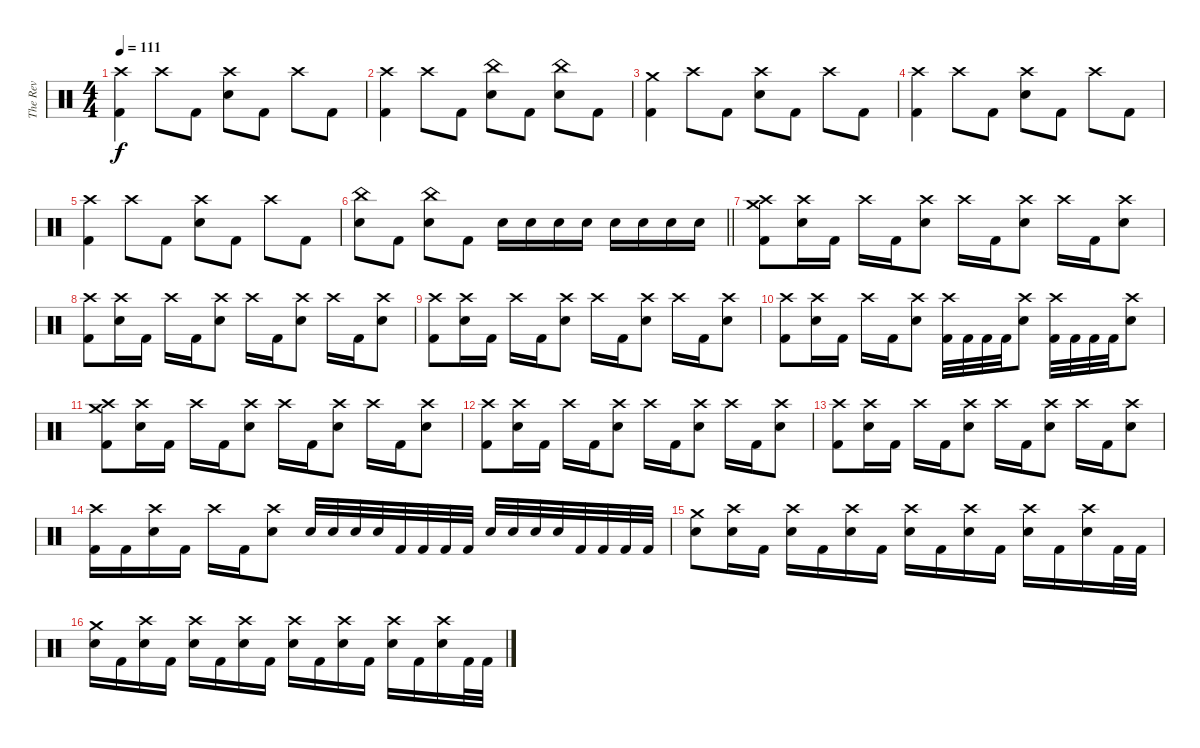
\track ("The Rev" "The Rev") {instrument percussion}
\staff {score}
\articulation defaults
\ts (4 4)
\tempo 111
\clef neutral
\ks c
("Crash high (hit)" "Kick (hit) 2").4{dy f} "Crash high (hit)".8 "Kick (hit) 2".8 ("Crash high (hit)" "Snare (hit) 2").8 "Kick (hit) 2".8 "Crash high (hit)".8 "Kick (hit) 2".8 |
("Crash high (hit)" "Kick (hit) 2").4 "Crash high (hit)".8 "Kick (hit) 2".8 ("China (hit)" "Snare (hit) 2").8 "Kick (hit) 2".8 ("China (hit)" "Snare (hit) 2").8 "Kick (hit) 2".8 |
("Crash medium (hit)" "Kick (hit) 2").4 "Crash high (hit)".8 "Kick (hit) 2".8 ("Crash high (hit)" "Snare (hit) 2").8 "Kick (hit) 2".8 "Crash high (hit)".8 "Kick (hit) 2".8 |
("Crash high (hit)" "Kick (hit) 2").4 "Crash high (hit)".8 "Kick (hit) 2".8 ("Crash high (hit)" "Snare (hit) 2").8 "Kick (hit) 2".8 "Crash high (hit)".8 "Kick (hit) 2".8 |
("Crash high (hit)" "Kick (hit) 2").4 "Crash high (hit)".8 "Kick (hit) 2".8 ("Crash high (hit)" "Snare (hit) 2").8 "Kick (hit) 2".8 "Crash high (hit)".8 "Kick (hit) 2".8 |
\barLineRight lightlight
("China (hit)" "Snare (hit) 2").8 "Kick (hit) 2".8 ("China (hit)" "Snare (hit) 2").8 "Kick (hit) 2".8 "Snare (hit) 2".16 "Snare (hit) 2".16 "Snare (hit) 2".16 "Snare (hit) 2".16 "Snare (hit) 2".16 "Snare (hit) 2".16 "Snare (hit) 2".16 "Snare (hit) 2".16 |
("Crash high (hit)" "Crash medium (hit)" "Kick (hit) 2").8 ("Crash high (hit)" "Snare (hit) 2").16 "Kick (hit) 2".16 "Crash high (hit)".16 "Kick (hit) 2".16 ("Crash high (hit)" "Snare (hit) 2").8 "Crash high (hit)".16 "Kick (hit) 2".16 ("Crash high (hit)" "Snare (hit) 2").8 "Crash high (hit)".16 "Kick (hit) 2".16 ("Crash high (hit)" "Snare (hit) 2").8 |
("Crash high (hit)" "Kick (hit) 2").8 ("Crash high (hit)" "Snare (hit) 2").16 "Kick (hit) 2".16 "Crash high (hit)".16 "Kick (hit) 2".16 ("Crash high (hit)" "Snare (hit) 2").8 "Crash high (hit)".16 "Kick (hit) 2".16 ("Crash high (hit)" "Snare (hit) 2").8 "Crash high (hit)".16 "Kick (hit) 2".16 ("Crash high (hit)" "Snare (hit) 2").8 |
("Crash high (hit)" "Kick (hit) 2").8 ("Crash high (hit)" "Snare (hit) 2").16 "Kick (hit) 2".16 "Crash high (hit)".16 "Kick (hit) 2".16 ("Crash high (hit)" "Snare (hit) 2").8 "Crash high (hit)".16 "Kick (hit) 2".16 ("Crash high (hit)" "Snare (hit) 2").8 "Crash high (hit)".16 "Kick (hit) 2".16 ("Crash high (hit)" "Snare (hit) 2").8 |
("Crash high (hit)" "Kick (hit) 2").8 ("Crash high (hit)" "Snare (hit) 2").16 "Kick (hit) 2".16 "Crash high (hit)".16 "Kick (hit) 2".16 ("Crash high (hit)" "Snare (hit) 2").8 ("Crash high (hit)" "Kick (hit) 2").32 "Kick (hit) 2".32 "Kick (hit) 2".32 "Kick (hit) 2".32 ("Crash high (hit)" "Snare (hit) 2").8 ("Crash high (hit)" "Kick (hit) 2").32 "Kick (hit) 2".32 "Kick (hit) 2".32 "Kick (hit) 2".32 ("Crash high (hit)" "Snare (hit) 2").8 |
("Crash high (hit)" "Crash medium (hit)" "Kick (hit) 2").8 ("Crash high (hit)" "Snare (hit) 2").16 "Kick (hit) 2".16 "Crash high (hit)".16 "Kick (hit) 2".16 ("Crash high (hit)" "Snare (hit) 2").8 "Crash high (hit)".16 "Kick (hit) 2".16 ("Crash high (hit)" "Snare (hit) 2").8 "Crash high (hit)".16 "Kick (hit) 2".16 ("Crash high (hit)" "Snare (hit) 2").8 |
("Crash high (hit)" "Kick (hit) 2").8 ("Crash high (hit)" "Snare (hit) 2").16 "Kick (hit) 2".16 "Crash high (hit)".16 "Kick (hit) 2".16 ("Crash high (hit)" "Snare (hit) 2").8 "Crash high (hit)".16 "Kick (hit) 2".16 ("Crash high (hit)" "Snare (hit) 2").8 "Crash high (hit)".16 "Kick (hit) 2".16 ("Crash high (hit)" "Snare (hit) 2").8 |
("Crash high (hit)" "Kick (hit) 2").8 ("Crash high (hit)" "Snare (hit) 2").16 "Kick (hit) 2".16 "Crash high (hit)".16 "Kick (hit) 2".16 ("Crash high (hit)" "Snare (hit) 2").8 "Crash high (hit)".16 "Kick (hit) 2".16 ("Crash high (hit)" "Snare (hit) 2").8 "Crash high (hit)".16 "Kick (hit) 2".16 ("Crash high (hit)" "Snare (hit) 2").8 |
("Crash high (hit)" "Kick (hit) 2").16 "Kick (hit) 2".16 ("Crash high (hit)" "Snare (hit) 2").16 "Kick (hit) 2".16 "Crash high (hit)".16 "Kick (hit) 2".16 ("Crash high (hit)" "Snare (hit) 2").8 "Snare (hit) 2".32 "Snare (hit) 2".32 "Snare (hit) 2".32 "Snare (hit) 2".32 "Kick (hit) 2".32 "Kick (hit) 2".32 "Kick (hit) 2".32 "Kick (hit) 2".32 "Snare (hit) 2".32 "Snare (hit) 2".32 "Snare (hit) 2".32 "Snare (hit) 2".32 "Kick (hit) 2".32 "Kick (hit) 2".32 "Kick (hit) 2".32 "Kick (hit) 2".32 |
("Crash medium (hit)" "Snare (hit) 2").8 ("Crash high (hit)" "Snare (hit) 2").16 "Kick (hit) 2".16 ("Crash high (hit)" "Snare (hit) 2").16 "Kick (hit) 2".16 ("Crash high (hit)" "Snare (hit) 2").16 "Kick (hit) 2".16 ("Crash high (hit)" "Snare (hit) 2").16 "Kick (hit) 2".16 ("Crash high (hit)" "Snare (hit) 2").16 "Kick (hit) 2".16 ("Crash high (hit)" "Snare (hit) 2").16 "Kick (hit) 2".16 ("Crash high (hit)" "Snare (hit) 2").16 "Kick (hit) 2".32 "Kick (hit) 2".32 |
("Crash medium (hit)" "Snare (hit) 2").16 "Kick (hit) 2".16 ("Crash high (hit)" "Snare (hit) 2").16 "Kick (hit) 2".16 ("Crash high (hit)" "Snare (hit) 2").16 "Kick (hit) 2".16 ("Crash high (hit)" "Snare (hit) 2").16 "Kick (hit) 2".16 ("Crash high (hit)" "Snare (hit) 2").16 "Kick (hit) 2".16 ("Crash high (hit)" "Snare (hit) 2").16 "Kick (hit) 2".16 ("Crash high (hit)" "Snare (hit) 2").16 "Kick (hit) 2".16 ("Crash high (hit)" "Snare (hit) 2").16 "Kick (hit) 2".32 "Kick (hit) 2".32
